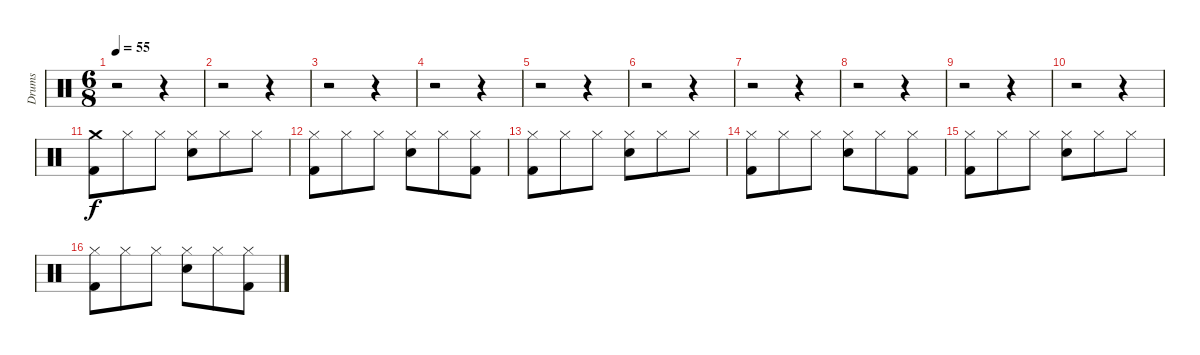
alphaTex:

\track ("Drums" "Drums") {instrument percussion}
\staff {score}
\articulation defaults
\ts (6 8)
\tempo 55
\clef neutral
\ks c
r.2{dy f} r.4 |
r.2 r.4 |
r.2 r.4 |
r.2 r.4 |
r.2 r.4 |
r.2 r.4 |
r.2 r.4 |
r.2 r.4 |
r.2 r.4 |
r.2 r.4 |
("Crash medium (hit)" "Kick (hit) 2").8 "Hi-Hat (closed)".8 "Hi-Hat (closed)".8 ("Hi-Hat (closed)" "Snare (hit) 2").8 "Hi-Hat (closed)".8 "Hi-Hat (closed)".8 |
("Hi-Hat (closed)" "Kick (hit) 2").8 "Hi-Hat (closed)".8 "Hi-Hat (closed)".8 ("Hi-Hat (closed)" "Snare (hit) 2").8 "Hi-Hat (closed)".8 ("Hi-Hat (closed)" "Kick (hit) 2").8 |
("Hi-Hat (closed)" "Kick (hit) 2").8 "Hi-Hat (closed)".8 "Hi-Hat (closed)".8 ("Hi-Hat (closed)" "Snare (hit) 2").8 "Hi-Hat (closed)".8 "Hi-Hat (closed)".8 |
("Hi-Hat (closed)" "Kick (hit) 2").8 "Hi-Hat (closed)".8 "Hi-Hat (closed)".8 ("Hi-Hat (closed)" "Snare (hit) 2").8 "Hi-Hat (closed)".8 ("Hi-Hat (closed)" "Kick (hit) 2").8 |
("Hi-Hat (closed)" "Kick (hit) 2").8 "Hi-Hat (closed)".8 "Hi-Hat (closed)".8 ("Hi-Hat (closed)" "Snare (hit) 2").8 "Hi-Hat (closed)".8 "Hi-Hat (closed)".8 |
("Hi-Hat (closed)" "Kick (hit) 2").8 "Hi-Hat (closed)".8 "Hi-Hat (closed)".8 ("Hi-Hat (closed)" "Snare (hit) 2").8 "Hi-Hat (closed)".8 ("Hi-Hat (closed)" "Kick (hit) 2").8
